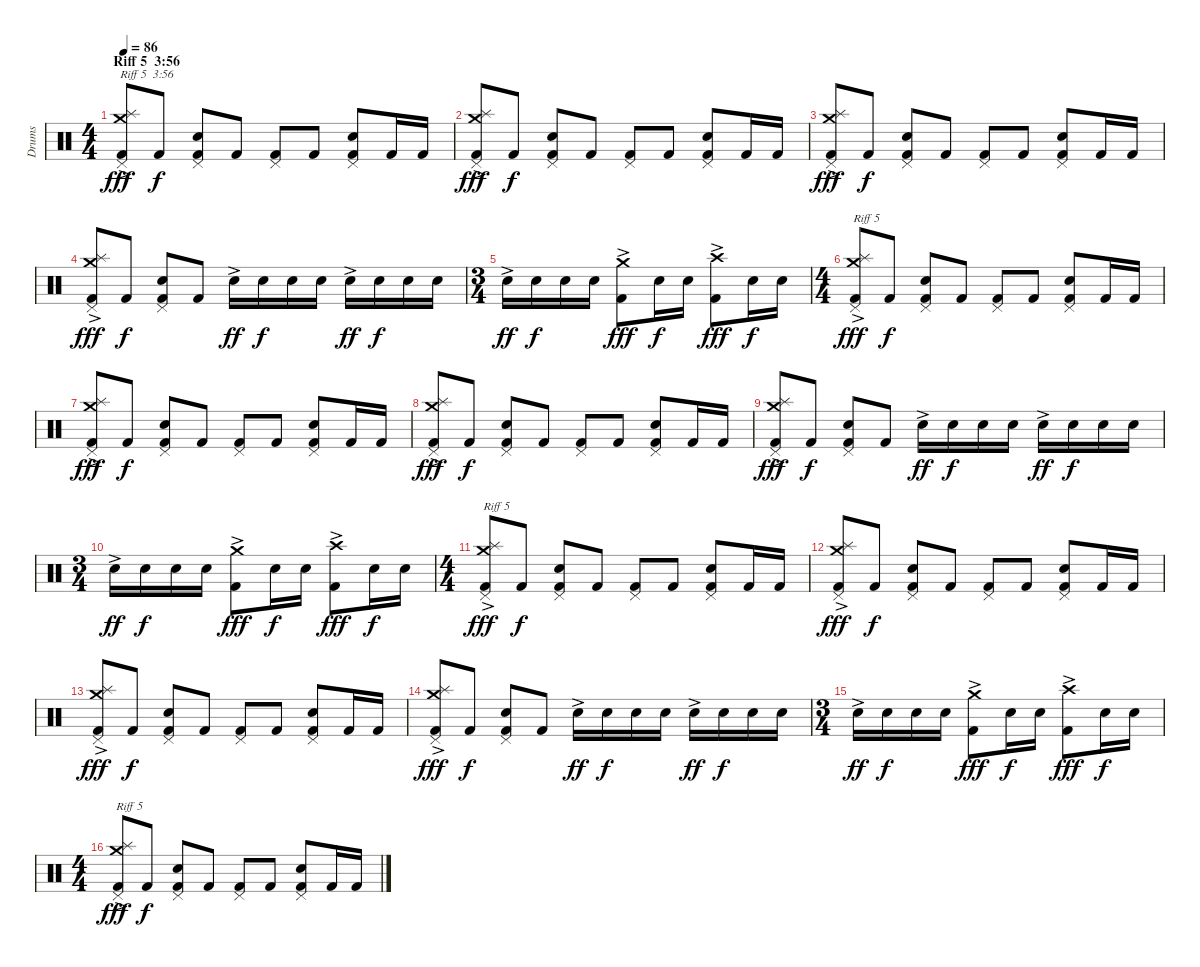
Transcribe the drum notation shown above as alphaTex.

\track ("Drums" "Drums") {instrument percussion}
\staff {score}
\articulation defaults
\ts (4 4)
\section ("" "Riff 5  3:56")
\tempo 86
\clef neutral
\ks c
("Pedal Hi-Hat (hit)" "Crash medium (hit)"{ac} "Splash (hit)" "Kick (hit) 2").8{txt "Riff 5  3:56" dy fff} "Kick (hit) 2".8{dy f} ("Pedal Hi-Hat (hit)" "Electric Snare (hit)" "Kick (hit) 2").8 "Kick (hit) 2".8 ("Pedal Hi-Hat (hit)" "Kick (hit) 2").8 "Kick (hit) 2".8 ("Pedal Hi-Hat (hit)" "Electric Snare (hit)" "Kick (hit) 2").8 "Kick (hit) 2".16 "Kick (hit) 2".16 |
("Pedal Hi-Hat (hit)" "Crash medium (hit)"{ac} "Splash (hit)" "Kick (hit) 2").8{dy fff} "Kick (hit) 2".8{dy f} ("Pedal Hi-Hat (hit)" "Electric Snare (hit)" "Kick (hit) 2").8 "Kick (hit) 2".8 ("Pedal Hi-Hat (hit)" "Kick (hit) 2").8 "Kick (hit) 2".8 ("Pedal Hi-Hat (hit)" "Electric Snare (hit)" "Kick (hit) 2").8 "Kick (hit) 2".16 "Kick (hit) 2".16 |
("Pedal Hi-Hat (hit)" "Crash medium (hit)"{ac} "Splash (hit)" "Kick (hit) 2").8{dy fff} "Kick (hit) 2".8{dy f} ("Pedal Hi-Hat (hit)" "Electric Snare (hit)" "Kick (hit) 2").8 "Kick (hit) 2".8 ("Pedal Hi-Hat (hit)" "Kick (hit) 2").8 "Kick (hit) 2".8 ("Pedal Hi-Hat (hit)" "Electric Snare (hit)" "Kick (hit) 2").8 "Kick (hit) 2".16 "Kick (hit) 2".16 |
("Pedal Hi-Hat (hit)" "Crash medium (hit)"{ac} "Splash (hit)" "Kick (hit) 2").8{dy fff} "Kick (hit) 2".8{dy f} ("Pedal Hi-Hat (hit)" "Electric Snare (hit)" "Kick (hit) 2").8 "Kick (hit) 2".8 "Electric Snare (hit)"{ac}.16{dy ff} "Electric Snare (hit)".16{dy f} "Electric Snare (hit)".16 "Electric Snare (hit)".16 "Electric Snare (hit)"{ac}.16{dy ff} "Electric Snare (hit)".16{dy f} "Electric Snare (hit)".16 "Electric Snare (hit)".16 |
\ts (3 4)
"Electric Snare (hit)"{ac}.16{dy ff} "Electric Snare (hit)".16{dy f} "Electric Snare (hit)".16 "Electric Snare (hit)".16 ("Crash medium (hit)"{ac} "Kick (hit) 2").8{dy fff} "Electric Snare (hit)".16{dy f} "Electric Snare (hit)".16 ("Crash high (hit)"{ac} "Kick (hit) 2").8{dy fff} "Electric Snare (hit)".16{dy f} "Electric Snare (hit)".16 |
\ts (4 4)
("Pedal Hi-Hat (hit)" "Crash medium (hit)"{ac} "Splash (hit)" "Kick (hit) 2").8{txt "Riff 5" dy fff} "Kick (hit) 2".8{dy f} ("Pedal Hi-Hat (hit)" "Electric Snare (hit)" "Kick (hit) 2").8 "Kick (hit) 2".8 ("Pedal Hi-Hat (hit)" "Kick (hit) 2").8 "Kick (hit) 2".8 ("Pedal Hi-Hat (hit)" "Electric Snare (hit)" "Kick (hit) 2").8 "Kick (hit) 2".16 "Kick (hit) 2".16 |
("Pedal Hi-Hat (hit)" "Crash medium (hit)"{ac} "Splash (hit)" "Kick (hit) 2").8{dy fff} "Kick (hit) 2".8{dy f} ("Pedal Hi-Hat (hit)" "Electric Snare (hit)" "Kick (hit) 2").8 "Kick (hit) 2".8 ("Pedal Hi-Hat (hit)" "Kick (hit) 2").8 "Kick (hit) 2".8 ("Pedal Hi-Hat (hit)" "Electric Snare (hit)" "Kick (hit) 2").8 "Kick (hit) 2".16 "Kick (hit) 2".16 |
("Pedal Hi-Hat (hit)" "Crash medium (hit)"{ac} "Splash (hit)" "Kick (hit) 2").8{dy fff} "Kick (hit) 2".8{dy f} ("Pedal Hi-Hat (hit)" "Electric Snare (hit)" "Kick (hit) 2").8 "Kick (hit) 2".8 ("Pedal Hi-Hat (hit)" "Kick (hit) 2").8 "Kick (hit) 2".8 ("Pedal Hi-Hat (hit)" "Electric Snare (hit)" "Kick (hit) 2").8 "Kick (hit) 2".16 "Kick (hit) 2".16 |
("Pedal Hi-Hat (hit)" "Crash medium (hit)"{ac} "Splash (hit)" "Kick (hit) 2").8{dy fff} "Kick (hit) 2".8{dy f} ("Pedal Hi-Hat (hit)" "Electric Snare (hit)" "Kick (hit) 2").8 "Kick (hit) 2".8 "Electric Snare (hit)"{ac}.16{dy ff} "Electric Snare (hit)".16{dy f} "Electric Snare (hit)".16 "Electric Snare (hit)".16 "Electric Snare (hit)"{ac}.16{dy ff} "Electric Snare (hit)".16{dy f} "Electric Snare (hit)".16 "Electric Snare (hit)".16 |
\ts (3 4)
"Electric Snare (hit)"{ac}.16{dy ff} "Electric Snare (hit)".16{dy f} "Electric Snare (hit)".16 "Electric Snare (hit)".16 ("Crash medium (hit)"{ac} "Kick (hit) 2").8{dy fff} "Electric Snare (hit)".16{dy f} "Electric Snare (hit)".16 ("Crash high (hit)"{ac} "Kick (hit) 2").8{dy fff} "Electric Snare (hit)".16{dy f} "Electric Snare (hit)".16 |
\ts (4 4)
("Pedal Hi-Hat (hit)" "Crash medium (hit)"{ac} "Splash (hit)" "Kick (hit) 2").8{txt "Riff 5" dy fff} "Kick (hit) 2".8{dy f} ("Pedal Hi-Hat (hit)" "Electric Snare (hit)" "Kick (hit) 2").8 "Kick (hit) 2".8 ("Pedal Hi-Hat (hit)" "Kick (hit) 2").8 "Kick (hit) 2".8 ("Pedal Hi-Hat (hit)" "Electric Snare (hit)" "Kick (hit) 2").8 "Kick (hit) 2".16 "Kick (hit) 2".16 |
("Pedal Hi-Hat (hit)" "Crash medium (hit)"{ac} "Splash (hit)" "Kick (hit) 2").8{dy fff} "Kick (hit) 2".8{dy f} ("Pedal Hi-Hat (hit)" "Electric Snare (hit)" "Kick (hit) 2").8 "Kick (hit) 2".8 ("Pedal Hi-Hat (hit)" "Kick (hit) 2").8 "Kick (hit) 2".8 ("Pedal Hi-Hat (hit)" "Electric Snare (hit)" "Kick (hit) 2").8 "Kick (hit) 2".16 "Kick (hit) 2".16 |
("Pedal Hi-Hat (hit)" "Crash medium (hit)"{ac} "Splash (hit)" "Kick (hit) 2").8{dy fff} "Kick (hit) 2".8{dy f} ("Pedal Hi-Hat (hit)" "Electric Snare (hit)" "Kick (hit) 2").8 "Kick (hit) 2".8 ("Pedal Hi-Hat (hit)" "Kick (hit) 2").8 "Kick (hit) 2".8 ("Pedal Hi-Hat (hit)" "Electric Snare (hit)" "Kick (hit) 2").8 "Kick (hit) 2".16 "Kick (hit) 2".16 |
("Pedal Hi-Hat (hit)" "Crash medium (hit)"{ac} "Splash (hit)" "Kick (hit) 2").8{dy fff} "Kick (hit) 2".8{dy f} ("Pedal Hi-Hat (hit)" "Electric Snare (hit)" "Kick (hit) 2").8 "Kick (hit) 2".8 "Electric Snare (hit)"{ac}.16{dy ff} "Electric Snare (hit)".16{dy f} "Electric Snare (hit)".16 "Electric Snare (hit)".16 "Electric Snare (hit)"{ac}.16{dy ff} "Electric Snare (hit)".16{dy f} "Electric Snare (hit)".16 "Electric Snare (hit)".16 |
\ts (3 4)
"Electric Snare (hit)"{ac}.16{dy ff} "Electric Snare (hit)".16{dy f} "Electric Snare (hit)".16 "Electric Snare (hit)".16 ("Crash medium (hit)"{ac} "Kick (hit) 2").8{dy fff} "Electric Snare (hit)".16{dy f} "Electric Snare (hit)".16 ("Crash high (hit)"{ac} "Kick (hit) 2").8{dy fff} "Electric Snare (hit)".16{dy f} "Electric Snare (hit)".16 |
\ts (4 4)
("Pedal Hi-Hat (hit)" "Crash medium (hit)"{ac} "Splash (hit)" "Kick (hit) 2").8{txt "Riff 5" dy fff} "Kick (hit) 2".8{dy f} ("Pedal Hi-Hat (hit)" "Electric Snare (hit)" "Kick (hit) 2").8 "Kick (hit) 2".8 ("Pedal Hi-Hat (hit)" "Kick (hit) 2").8 "Kick (hit) 2".8 ("Pedal Hi-Hat (hit)" "Electric Snare (hit)" "Kick (hit) 2").8 "Kick (hit) 2".16 "Kick (hit) 2".16
